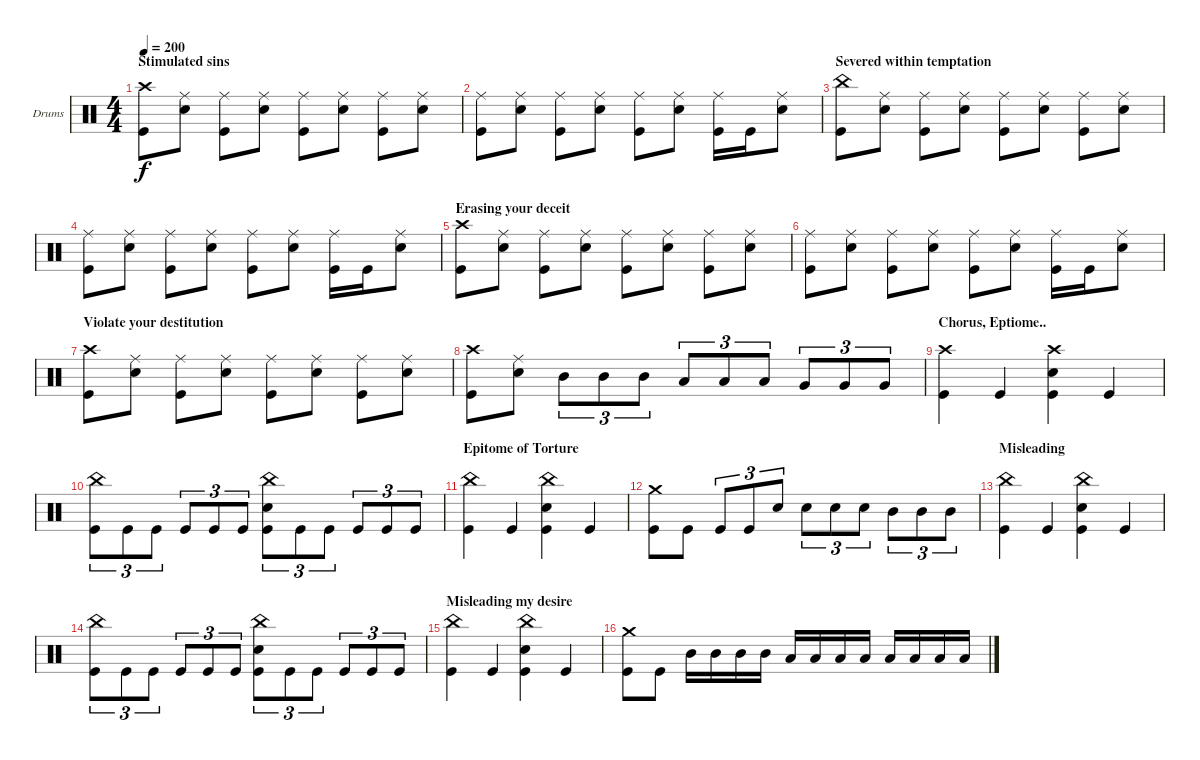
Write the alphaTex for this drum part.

\defaultSystemsLayout 4
\bracketExtendMode groupsimilarinstruments
\firstSystemTrackNameOrientation horizontal
\otherSystemsTrackNameOrientation horizontal
\track ("Markus Freiwald" "Drums") {instrument percussion}
\staff {score}
\articulation defaults
\ts (4 4)
\section ("" "Stimulated sins")
\tempo 200
\clef neutral
\ks c
("Crash high (hit)" "Kick (hit)").8{dy f} ("Snare (hit) 2" "Ride (middle)").8 ("Ride (middle)" "Kick (hit)").8 ("Snare (hit) 2" "Ride (middle)").8 ("Ride (middle)" "Kick (hit)").8 ("Snare (hit) 2" "Ride (middle)").8 ("Ride (middle)" "Kick (hit)").8 ("Snare (hit) 2" "Ride (middle)").8 |
("Ride (middle)" "Kick (hit)").8 ("Snare (hit) 2" "Ride (middle)").8 ("Ride (middle)" "Kick (hit)").8 ("Snare (hit) 2" "Ride (middle)").8 ("Ride (middle)" "Kick (hit)").8 ("Snare (hit) 2" "Ride (middle)").8 ("Ride (middle)" "Kick (hit)").16 "Kick (hit)".16 ("Snare (hit) 2" "Ride (middle)").8 |
\section ("" "Severed within temptation")
("Kick (hit)" "China (hit)").8 ("Snare (hit) 2" "Ride (middle)").8 ("Ride (middle)" "Kick (hit)").8 ("Snare (hit) 2" "Ride (middle)").8 ("Ride (middle)" "Kick (hit)").8 ("Snare (hit) 2" "Ride (middle)").8 ("Ride (middle)" "Kick (hit)").8 ("Snare (hit) 2" "Ride (middle)").8 |
("Ride (middle)" "Kick (hit)").8 ("Snare (hit) 2" "Ride (middle)").8 ("Ride (middle)" "Kick (hit)").8 ("Snare (hit) 2" "Ride (middle)").8 ("Ride (middle)" "Kick (hit)").8 ("Snare (hit) 2" "Ride (middle)").8 ("Ride (middle)" "Kick (hit)").16 "Kick (hit)".16 ("Snare (hit) 2" "Ride (middle)").8 |
\section ("" "Erasing your deceit")
("Crash high (hit)" "Kick (hit)").8 ("Snare (hit) 2" "Ride (middle)").8 ("Ride (middle)" "Kick (hit)").8 ("Snare (hit) 2" "Ride (middle)").8 ("Ride (middle)" "Kick (hit)").8 ("Snare (hit) 2" "Ride (middle)").8 ("Ride (middle)" "Kick (hit)").8 ("Snare (hit) 2" "Ride (middle)").8 |
("Ride (middle)" "Kick (hit)").8 ("Snare (hit) 2" "Ride (middle)").8 ("Ride (middle)" "Kick (hit)").8 ("Snare (hit) 2" "Ride (middle)").8 ("Ride (middle)" "Kick (hit)").8 ("Snare (hit) 2" "Ride (middle)").8 ("Ride (middle)" "Kick (hit)").16 "Kick (hit)".16 ("Snare (hit) 2" "Ride (middle)").8 |
\section ("" "Violate your destitution")
("Crash high (hit)" "Kick (hit)").8 ("Snare (hit) 2" "Ride (middle)").8 ("Ride (middle)" "Kick (hit)").8 ("Snare (hit) 2" "Ride (middle)").8 ("Ride (middle)" "Kick (hit)").8 ("Snare (hit) 2" "Ride (middle)").8 ("Ride (middle)" "Kick (hit)").8 ("Snare (hit) 2" "Ride (middle)").8 |
("Crash high (hit)" "Kick (hit)").8 ("Snare (hit) 2" "Ride (middle)").8 "Mid Tom (hit)".8{tu (3 2)} "Mid Tom (hit)".8{tu (3 2)} "Mid Tom (hit)".8{tu (3 2)} "Low Tom (hit)".8{tu (3 2)} "Low Tom (hit)".8{tu (3 2)} "Low Tom (hit)".8{tu (3 2)} "Very Low Tom (hit)".8{tu (3 2)} "Very Low Tom (hit)".8{tu (3 2)} "Very Low Tom (hit)".8{tu (3 2)} |
\section ("" "Chorus, Eptiome..")
("Crash high (hit)" "Kick (hit)").4 "Kick (hit)".4 ("Snare (hit) 2" "Crash high (hit)" "Kick (hit)").4 "Kick (hit)".4 |
("China (hit)" "Kick (hit)").8{tu (3 2)} "Kick (hit)".8{tu (3 2)} "Kick (hit)".8{tu (3 2)} "Kick (hit)".8{tu (3 2)} "Kick (hit)".8{tu (3 2)} "Kick (hit)".8{tu (3 2)} ("China (hit)" "Kick (hit)" "Snare (hit) 2").8{tu (3 2)} "Kick (hit)".8{tu (3 2)} "Kick (hit)".8{tu (3 2)} "Kick (hit)".8{tu (3 2)} "Kick (hit)".8{tu (3 2)} "Kick (hit)".8{tu (3 2)} |
\section ("" "Epitome of Torture")
("Kick (hit)" "China (hit)").4 "Kick (hit)".4 ("Snare (hit) 2" "Kick (hit)" "China (hit)").4 "Kick (hit)".4 |
("Crash medium (hit)" "Kick (hit)").8 "Kick (hit)".8 "Kick (hit)".8{tu (3 2)} "Kick (hit)".8{tu (3 2)} "Snare (hit) 2".8{tu (3 2)} "Snare (hit) 2".8{tu (3 2)} "Snare (hit) 2".8{tu (3 2)} "Snare (hit) 2".8{tu (3 2)} "Mid Tom (hit)".8{tu (3 2)} "Mid Tom (hit)".8{tu (3 2)} "Mid Tom (hit)".8{tu (3 2)} |
\section ("" "Misleading")
("Kick (hit)" "China (hit)").4 "Kick (hit)".4 ("Snare (hit) 2" "Kick (hit)" "China (hit)").4 "Kick (hit)".4 |
("China (hit)" "Kick (hit)").8{tu (3 2)} "Kick (hit)".8{tu (3 2)} "Kick (hit)".8{tu (3 2)} "Kick (hit)".8{tu (3 2)} "Kick (hit)".8{tu (3 2)} "Kick (hit)".8{tu (3 2)} ("China (hit)" "Kick (hit)" "Snare (hit) 2").8{tu (3 2)} "Kick (hit)".8{tu (3 2)} "Kick (hit)".8{tu (3 2)} "Kick (hit)".8{tu (3 2)} "Kick (hit)".8{tu (3 2)} "Kick (hit)".8{tu (3 2)} |
\section ("" "Misleading my desire")
("Kick (hit)" "China (hit)").4 "Kick (hit)".4 ("Snare (hit) 2" "Kick (hit)" "China (hit)").4 "Kick (hit)".4 |
("Crash medium (hit)" "Kick (hit)").8 "Kick (hit)".8 "Mid Tom (hit)".16 "Mid Tom (hit)".16 "Mid Tom (hit)".16 "Mid Tom (hit)".16 "Low Tom (hit)".16 "Low Tom (hit)".16 "Low Tom (hit)".16 "Low Tom (hit)".16 "Low Tom (hit)".16 "Low Tom (hit)".16 "Low Tom (hit)".16 "Low Tom (hit)".16
